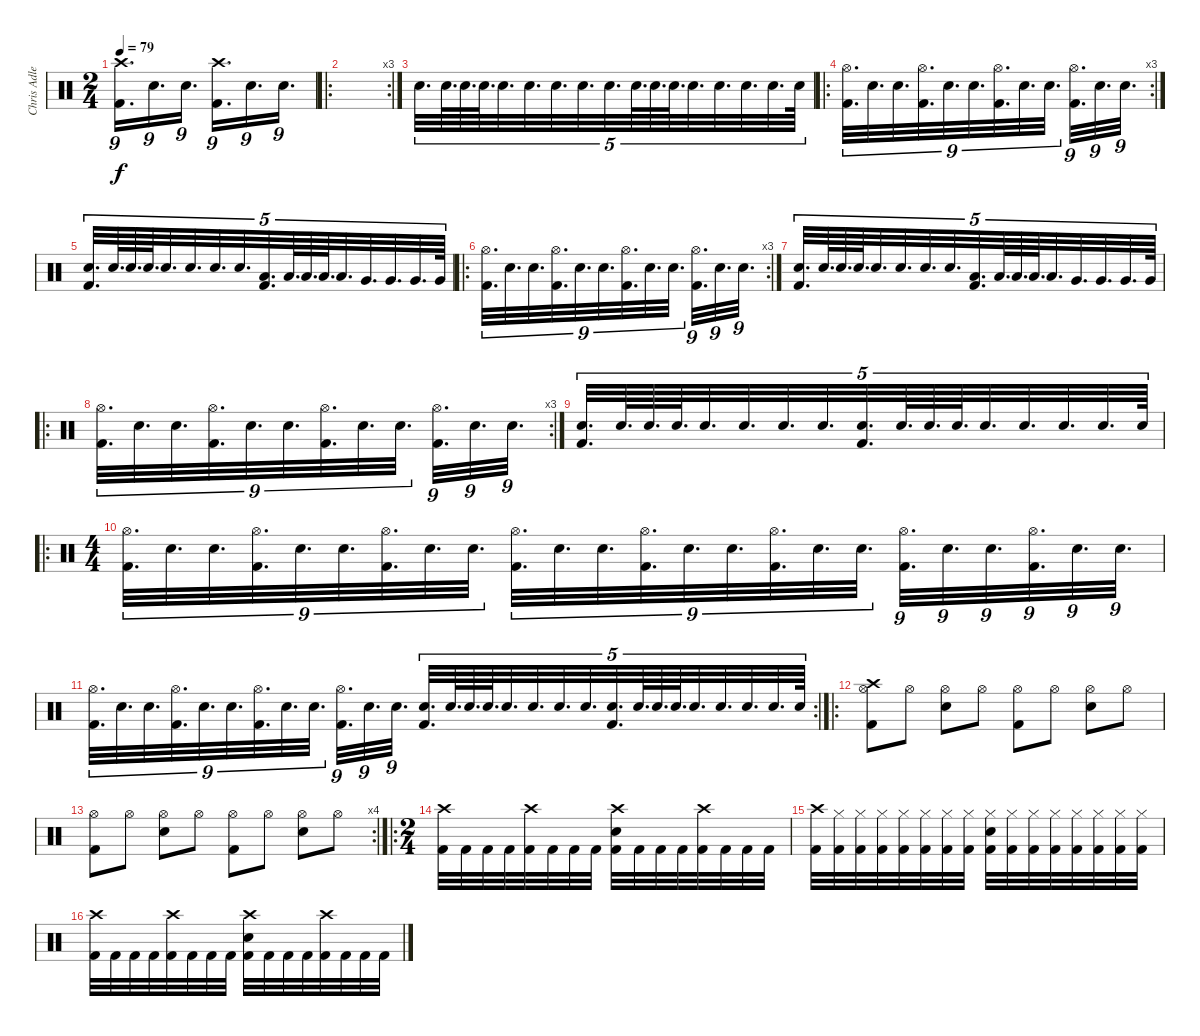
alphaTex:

\track ("Chris Adler" "Chris Adle") {instrument percussion}
\staff {score}
\articulation defaults
\ts (2 4)
\tempo 79
\clef neutral
\ks c
("Crash high (hit)" "Kick (hit) 2").16{d tu (9 8) dy f} "Electric Snare (hit)".16{d tu (9 8)} "Electric Snare (hit)".16{d tu (9 8)} ("Crash high (hit)" "Kick (hit) 2").16{d tu (9 8)} "Electric Snare (hit)".16{d tu (9 8)} "Electric Snare (hit)".16{d tu (9 8)} |
\ro
\rc 3
|
"Electric Snare (hit)".32{d tu (5 4)} "Electric Snare (hit)".64{d tu (5 4)} "Electric Snare (hit)".64{d tu (5 4)} "Electric Snare (hit)".64{d tu (5 4)} "Electric Snare (hit)".32{d tu (5 4)} "Electric Snare (hit)".32{d tu (5 4)} "Electric Snare (hit)".32{d tu (5 4)} "Electric Snare (hit)".32{d tu (5 4)} "Electric Snare (hit)".32{d tu (5 4)} "Electric Snare (hit)".64{d tu (5 4)} "Electric Snare (hit)".64{d tu (5 4)} "Electric Snare (hit)".64{d tu (5 4)} "Electric Snare (hit)".32{d tu (5 4)} "Electric Snare (hit)".32{d tu (5 4)} "Electric Snare (hit)".32{d tu (5 4)} "Electric Snare (hit)".32{d tu (5 4)} "Electric Snare (hit)".64{tu (5 4)} |
\ro
\rc 3
("Hi-Hat (open)" "Kick (hit) 2").32{d tu (9 8)} "Electric Snare (hit)".32{d tu (9 8)} "Electric Snare (hit)".32{d tu (9 8)} ("Hi-Hat (open)" "Kick (hit) 2").32{d tu (9 8)} "Electric Snare (hit)".32{d tu (9 8)} "Electric Snare (hit)".32{d tu (9 8)} ("Hi-Hat (open)" "Kick (hit) 2").32{d tu (9 8)} "Electric Snare (hit)".32{d tu (9 8)} "Electric Snare (hit)".32{d tu (9 8)} ("Hi-Hat (open)" "Kick (hit) 2").32{d tu (9 8)} "Electric Snare (hit)".32{d tu (9 8)} "Electric Snare (hit)".32{d tu (9 8)} |
("Electric Snare (hit)" "Kick (hit) 2").32{d tu (5 4)} "Electric Snare (hit)".64{d tu (5 4)} "Electric Snare (hit)".64{d tu (5 4)} "Electric Snare (hit)".64{d tu (5 4)} "Electric Snare (hit)".32{d tu (5 4)} "Electric Snare (hit)".32{d tu (5 4)} "Electric Snare (hit)".32{d tu (5 4)} "Electric Snare (hit)".32{d tu (5 4)} ("Low Floor Tom (hit)" "Kick (hit) 2").32{d tu (5 4)} "Low Floor Tom (hit)".64{d tu (5 4)} "Low Floor Tom (hit)".64{d tu (5 4)} "Low Floor Tom (hit)".64{d tu (5 4)} "Low Floor Tom (hit)".32{d tu (5 4)} "Very Low Tom (hit)".32{d tu (5 4)} "Very Low Tom (hit)".32{d tu (5 4)} "Very Low Tom (hit)".32{d tu (5 4)} "Very Low Tom (hit)".64{tu (5 4)} |
\ro
\rc 3
("Hi-Hat (open)" "Kick (hit) 2").32{d tu (9 8)} "Electric Snare (hit)".32{d tu (9 8)} "Electric Snare (hit)".32{d tu (9 8)} ("Hi-Hat (open)" "Kick (hit) 2").32{d tu (9 8)} "Electric Snare (hit)".32{d tu (9 8)} "Electric Snare (hit)".32{d tu (9 8)} ("Hi-Hat (open)" "Kick (hit) 2").32{d tu (9 8)} "Electric Snare (hit)".32{d tu (9 8)} "Electric Snare (hit)".32{d tu (9 8)} ("Hi-Hat (open)" "Kick (hit) 2").32{d tu (9 8)} "Electric Snare (hit)".32{d tu (9 8)} "Electric Snare (hit)".32{d tu (9 8)} |
("Electric Snare (hit)" "Kick (hit) 2").32{d tu (5 4)} "Electric Snare (hit)".64{d tu (5 4)} "Electric Snare (hit)".64{d tu (5 4)} "Electric Snare (hit)".64{d tu (5 4)} "Electric Snare (hit)".32{d tu (5 4)} "Electric Snare (hit)".32{d tu (5 4)} "Electric Snare (hit)".32{d tu (5 4)} "Electric Snare (hit)".32{d tu (5 4)} ("Low Floor Tom (hit)" "Kick (hit) 2").32{d tu (5 4)} "Low Floor Tom (hit)".64{d tu (5 4)} "Low Floor Tom (hit)".64{d tu (5 4)} "Low Floor Tom (hit)".64{d tu (5 4)} "Low Floor Tom (hit)".32{d tu (5 4)} "Very Low Tom (hit)".32{d tu (5 4)} "Very Low Tom (hit)".32{d tu (5 4)} "Very Low Tom (hit)".32{d tu (5 4)} "Very Low Tom (hit)".64{tu (5 4)} |
\ro
\rc 3
("Hi-Hat (open)" "Kick (hit) 2").32{d tu (9 8)} "Electric Snare (hit)".32{d tu (9 8)} "Electric Snare (hit)".32{d tu (9 8)} ("Hi-Hat (open)" "Kick (hit) 2").32{d tu (9 8)} "Electric Snare (hit)".32{d tu (9 8)} "Electric Snare (hit)".32{d tu (9 8)} ("Hi-Hat (open)" "Kick (hit) 2").32{d tu (9 8)} "Electric Snare (hit)".32{d tu (9 8)} "Electric Snare (hit)".32{d tu (9 8)} ("Hi-Hat (open)" "Kick (hit) 2").32{d tu (9 8)} "Electric Snare (hit)".32{d tu (9 8)} "Electric Snare (hit)".32{d tu (9 8)} |
("Electric Snare (hit)" "Kick (hit) 2").32{d tu (5 4)} "Electric Snare (hit)".64{d tu (5 4)} "Electric Snare (hit)".64{d tu (5 4)} "Electric Snare (hit)".64{d tu (5 4)} "Electric Snare (hit)".32{d tu (5 4)} "Electric Snare (hit)".32{d tu (5 4)} "Electric Snare (hit)".32{d tu (5 4)} "Electric Snare (hit)".32{d tu (5 4)} ("Electric Snare (hit)" "Kick (hit) 2").32{d tu (5 4)} "Electric Snare (hit)".64{d tu (5 4)} "Electric Snare (hit)".64{d tu (5 4)} "Electric Snare (hit)".64{d tu (5 4)} "Electric Snare (hit)".32{d tu (5 4)} "Electric Snare (hit)".32{d tu (5 4)} "Electric Snare (hit)".32{d tu (5 4)} "Electric Snare (hit)".32{d tu (5 4)} "Electric Snare (hit)".64{tu (5 4)} |
\ro
\ts (4 4)
("Hi-Hat (open)" "Kick (hit) 2").32{d tu (9 8)} "Electric Snare (hit)".32{d tu (9 8)} "Electric Snare (hit)".32{d tu (9 8)} ("Hi-Hat (open)" "Kick (hit) 2").32{d tu (9 8)} "Electric Snare (hit)".32{d tu (9 8)} "Electric Snare (hit)".32{d tu (9 8)} ("Hi-Hat (open)" "Kick (hit) 2").32{d tu (9 8)} "Electric Snare (hit)".32{d tu (9 8)} "Electric Snare (hit)".32{d tu (9 8)} ("Hi-Hat (open)" "Kick (hit) 2").32{d tu (9 8)} "Electric Snare (hit)".32{d tu (9 8)} "Electric Snare (hit)".32{d tu (9 8)} ("Hi-Hat (open)" "Kick (hit) 2").32{d tu (9 8)} "Electric Snare (hit)".32{d tu (9 8)} "Electric Snare (hit)".32{d tu (9 8)} ("Hi-Hat (open)" "Kick (hit) 2").32{d tu (9 8)} "Electric Snare (hit)".32{d tu (9 8)} "Electric Snare (hit)".32{d tu (9 8)} ("Hi-Hat (open)" "Kick (hit) 2").32{d tu (9 8)} "Electric Snare (hit)".32{d tu (9 8)} "Electric Snare (hit)".32{d tu (9 8)} ("Hi-Hat (open)" "Kick (hit) 2").32{d tu (9 8)} "Electric Snare (hit)".32{d tu (9 8)} "Electric Snare (hit)".32{d tu (9 8)} |
\rc 2
("Hi-Hat (open)" "Kick (hit) 2").32{d tu (9 8)} "Electric Snare (hit)".32{d tu (9 8)} "Electric Snare (hit)".32{d tu (9 8)} ("Hi-Hat (open)" "Kick (hit) 2").32{d tu (9 8)} "Electric Snare (hit)".32{d tu (9 8)} "Electric Snare (hit)".32{d tu (9 8)} ("Hi-Hat (open)" "Kick (hit) 2").32{d tu (9 8)} "Electric Snare (hit)".32{d tu (9 8)} "Electric Snare (hit)".32{d tu (9 8)} ("Hi-Hat (open)" "Kick (hit) 2").32{d tu (9 8)} "Electric Snare (hit)".32{d tu (9 8)} "Electric Snare (hit)".32{d tu (9 8)} ("Electric Snare (hit)" "Kick (hit) 2").32{d tu (5 4)} "Electric Snare (hit)".64{d tu (5 4)} "Electric Snare (hit)".64{d tu (5 4)} "Electric Snare (hit)".64{d tu (5 4)} "Electric Snare (hit)".32{d tu (5 4)} "Electric Snare (hit)".32{d tu (5 4)} "Electric Snare (hit)".32{d tu (5 4)} "Electric Snare (hit)".32{d tu (5 4)} ("Electric Snare (hit)" "Kick (hit) 2").32{d tu (5 4)} "Electric Snare (hit)".64{d tu (5 4)} "Electric Snare (hit)".64{d tu (5 4)} "Electric Snare (hit)".64{d tu (5 4)} "Electric Snare (hit)".32{d tu (5 4)} "Electric Snare (hit)".32{d tu (5 4)} "Electric Snare (hit)".32{d tu (5 4)} "Electric Snare (hit)".32{d tu (5 4)} "Electric Snare (hit)".64{tu (5 4)} |
\ro
("Hi-Hat (open)" "Crash high (hit)" "Kick (hit) 2").8 "Hi-Hat (open)".8 ("Hi-Hat (open)" "Electric Snare (hit)").8 "Hi-Hat (open)".8 ("Hi-Hat (open)" "Kick (hit) 2").8 "Hi-Hat (open)".8 ("Hi-Hat (open)" "Electric Snare (hit)").8 "Hi-Hat (open)".8 |
\rc 4
("Hi-Hat (open)" "Kick (hit) 2").8 "Hi-Hat (open)".8 ("Hi-Hat (open)" "Electric Snare (hit)").8 "Hi-Hat (open)".8 ("Hi-Hat (open)" "Kick (hit) 2").8 "Hi-Hat (open)".8 ("Hi-Hat (open)" "Electric Snare (hit)").8 "Hi-Hat (open)".8 |
\ro
\ts (2 4)
("Crash high (hit)" "Kick (hit) 2").32 "Kick (hit) 2".32 "Kick (hit) 2".32 "Kick (hit) 2".32 ("Crash high (hit)" "Kick (hit) 2").32 "Kick (hit) 2".32 "Kick (hit) 2".32 "Kick (hit) 2".32 ("Crash high (hit)" "Electric Snare (hit)" "Kick (hit) 2").32 "Kick (hit) 2".32 "Kick (hit) 2".32 "Kick (hit) 2".32 ("Crash high (hit)" "Kick (hit) 2").32 "Kick (hit) 2".32 "Kick (hit) 2".32 "Kick (hit) 2".32 |
("Crash high (hit)" "Kick (hit) 2").32 ("Hi-Hat (closed)" "Kick (hit) 2").32 ("Hi-Hat (closed)" "Kick (hit) 2").32 ("Hi-Hat (closed)" "Kick (hit) 2").32 ("Hi-Hat (closed)" "Kick (hit) 2").32 ("Hi-Hat (closed)" "Kick (hit) 2").32 ("Hi-Hat (closed)" "Kick (hit) 2").32 ("Hi-Hat (closed)" "Kick (hit) 2").32 ("Hi-Hat (closed)" "Electric Snare (hit)" "Kick (hit) 2").32 ("Hi-Hat (closed)" "Kick (hit) 2").32 ("Hi-Hat (closed)" "Kick (hit) 2").32 ("Hi-Hat (closed)" "Kick (hit) 2").32 ("Hi-Hat (closed)" "Kick (hit) 2").32 ("Hi-Hat (closed)" "Kick (hit) 2").32 ("Hi-Hat (closed)" "Kick (hit) 2").32 ("Hi-Hat (closed)" "Kick (hit) 2").32 |
("Crash high (hit)" "Kick (hit) 2").32 "Kick (hit) 2".32 "Kick (hit) 2".32 "Kick (hit) 2".32 ("Crash high (hit)" "Kick (hit) 2").32 "Kick (hit) 2".32 "Kick (hit) 2".32 "Kick (hit) 2".32 ("Crash high (hit)" "Electric Snare (hit)" "Kick (hit) 2").32 "Kick (hit) 2".32 "Kick (hit) 2".32 "Kick (hit) 2".32 ("Crash high (hit)" "Kick (hit) 2").32 "Kick (hit) 2".32 "Kick (hit) 2".32 "Kick (hit) 2".32
